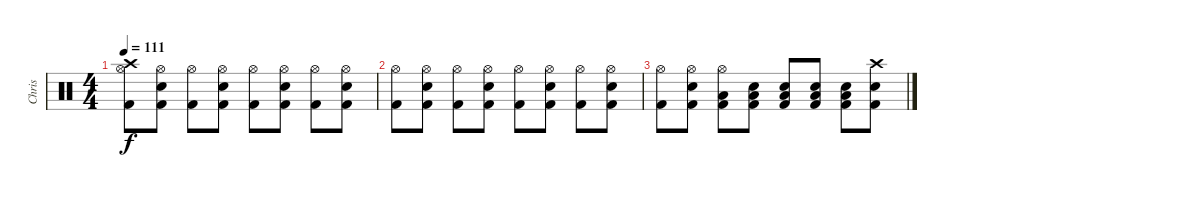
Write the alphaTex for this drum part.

\track ("Chris" "Chris") {instrument percussion}
\staff {score}
\articulation defaults
\ts (4 4)
\tempo 111
\clef neutral
\ks c
("Hi-Hat (open)" "Crash high (hit)" "Kick (hit) 2").8{dy f} ("Hi-Hat (open)" "Snare (hit) 2" "Kick (hit) 2").8 ("Hi-Hat (open)" "Kick (hit) 2").8 ("Hi-Hat (open)" "Snare (hit) 2" "Kick (hit) 2").8 ("Hi-Hat (open)" "Kick (hit) 2").8 ("Hi-Hat (open)" "Snare (hit) 2" "Kick (hit) 2").8 ("Hi-Hat (open)" "Kick (hit) 2").8 ("Hi-Hat (open)" "Snare (hit) 2" "Kick (hit) 2").8 |
("Hi-Hat (open)" "Kick (hit) 2").8 ("Hi-Hat (open)" "Snare (hit) 2" "Kick (hit) 2").8 ("Hi-Hat (open)" "Kick (hit) 2").8 ("Hi-Hat (open)" "Snare (hit) 2" "Kick (hit) 2").8 ("Hi-Hat (open)" "Kick (hit) 2").8 ("Hi-Hat (open)" "Snare (hit) 2" "Kick (hit) 2").8 ("Hi-Hat (open)" "Kick (hit) 2").8 ("Hi-Hat (open)" "Snare (hit) 2" "Kick (hit) 2").8 |
("Hi-Hat (open)" "Kick (hit) 2").8 ("Hi-Hat (open)" "Snare (hit) 2" "Kick (hit) 2").8 ("Hi-Hat (open)" "Low Tom (hit)" "Kick (hit) 2").8 ("Snare (hit)" "Low Tom (hit)" "Kick (hit) 2").8 ("Snare (hit)" "Low Tom (hit)" "Kick (hit) 2").8 ("Snare (hit)" "Low Tom (hit)" "Kick (hit) 2").8 ("Snare (hit)" "Low Tom (hit)" "Kick (hit) 2").8 ("Snare (hit)" "Crash high (hit)" "Kick (hit) 2").8
